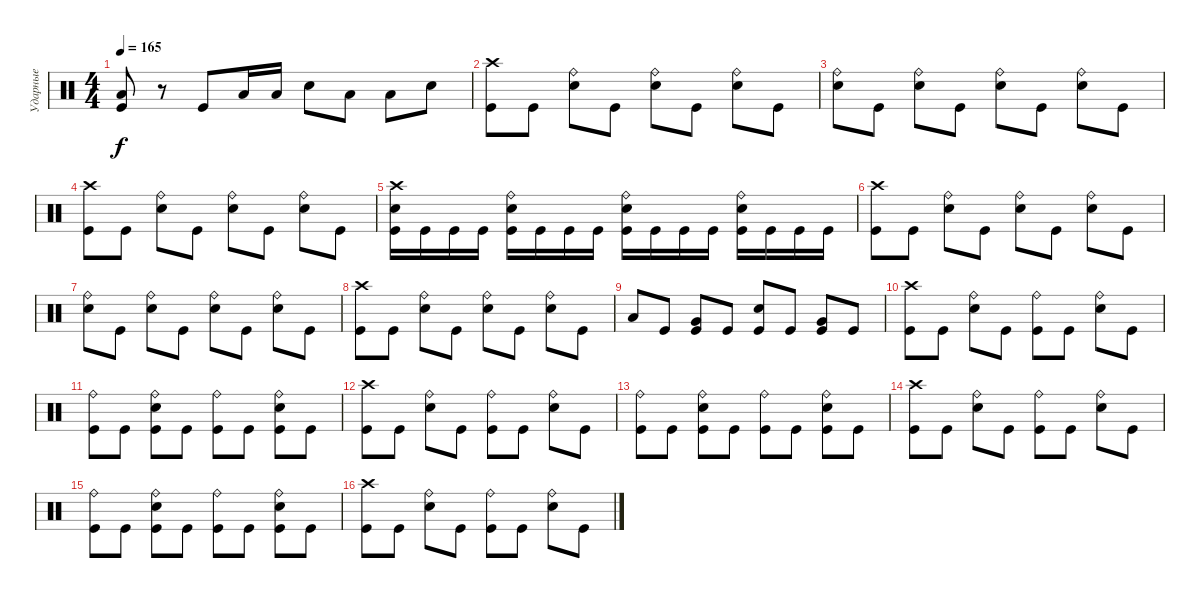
\track ("Ударные" "Ударные") {instrument percussion}
\staff {score}
\articulation defaults
\ts (4 4)
\tempo 165
\clef neutral
\ks c
("Low Tom (hit)" "Kick (hit)").8{dy f} r.8 "Kick (hit)".8 "Low Tom (hit)".16 "Low Tom (hit)".16 "Electric Snare (hit)".8 "Low Tom (hit)".8 "Low Tom (hit)".8 "Electric Snare (hit)".8 |
("Crash high (hit)" "Kick (hit)").8 "Kick (hit)".8 ("Ride (bell)" "Electric Snare (hit)").8 "Kick (hit)".8 ("Ride (bell)" "Electric Snare (hit)").8 "Kick (hit)".8 ("Ride (bell)" "Electric Snare (hit)").8 "Kick (hit)".8 |
("Ride (bell)" "Electric Snare (hit)").8 "Kick (hit)".8 ("Ride (bell)" "Electric Snare (hit)").8 "Kick (hit)".8 ("Ride (bell)" "Electric Snare (hit)").8 "Kick (hit)".8 ("Ride (bell)" "Electric Snare (hit)").8 "Kick (hit)".8 |
("Crash high (hit)" "Kick (hit)").8 "Kick (hit)".8 ("Ride (bell)" "Electric Snare (hit)").8 "Kick (hit)".8 ("Ride (bell)" "Electric Snare (hit)").8 "Kick (hit)".8 ("Ride (bell)" "Electric Snare (hit)").8 "Kick (hit)".8 |
("Crash high (hit)" "Electric Snare (hit)" "Kick (hit)").16 "Kick (hit)".16 "Kick (hit)".16 "Kick (hit)".16 ("Ride (bell)" "Electric Snare (hit)" "Kick (hit)").16 "Kick (hit)".16 "Kick (hit)".16 "Kick (hit)".16 ("Ride (bell)" "Electric Snare (hit)" "Kick (hit)").16 "Kick (hit)".16 "Kick (hit)".16 "Kick (hit)".16 ("Ride (bell)" "Electric Snare (hit)" "Kick (hit)").16 "Kick (hit)".16 "Kick (hit)".16 "Kick (hit)".16 |
("Crash high (hit)" "Kick (hit)").8 "Kick (hit)".8 ("Ride (bell)" "Electric Snare (hit)").8 "Kick (hit)".8 ("Ride (bell)" "Electric Snare (hit)").8 "Kick (hit)".8 ("Ride (bell)" "Electric Snare (hit)").8 "Kick (hit)".8 |
("Ride (bell)" "Electric Snare (hit)").8 "Kick (hit)".8 ("Ride (bell)" "Electric Snare (hit)").8 "Kick (hit)".8 ("Ride (bell)" "Electric Snare (hit)").8 "Kick (hit)".8 ("Ride (bell)" "Electric Snare (hit)").8 "Kick (hit)".8 |
("Crash high (hit)" "Kick (hit)").8 "Kick (hit)".8 ("Ride (bell)" "Electric Snare (hit)").8 "Kick (hit)".8 ("Ride (bell)" "Electric Snare (hit)").8 "Kick (hit)".8 ("Ride (bell)" "Electric Snare (hit)").8 "Kick (hit)".8 |
"Low Tom (hit)".8 "Kick (hit)".8 ("Very Low Tom (hit)" "Kick (hit)").8 "Kick (hit)".8 ("Electric Snare (hit)" "Kick (hit)").8 "Kick (hit)".8 ("Very Low Tom (hit)" "Kick (hit)").8 "Kick (hit)".8 |
("Crash high (hit)" "Kick (hit)").8 "Kick (hit)".8 ("Ride (bell)" "Electric Snare (hit)").8 "Kick (hit)".8 ("Ride (bell)" "Kick (hit)").8 "Kick (hit)".8 ("Ride (bell)" "Electric Snare (hit)").8 "Kick (hit)".8 |
("Ride (bell)" "Kick (hit)").8 "Kick (hit)".8 ("Ride (bell)" "Electric Snare (hit)" "Kick (hit)").8 "Kick (hit)".8 ("Ride (bell)" "Kick (hit)").8 "Kick (hit)".8 ("Ride (bell)" "Electric Snare (hit)" "Kick (hit)").8 "Kick (hit)".8 |
("Crash high (hit)" "Kick (hit)").8 "Kick (hit)".8 ("Ride (bell)" "Electric Snare (hit)").8 "Kick (hit)".8 ("Ride (bell)" "Kick (hit)").8 "Kick (hit)".8 ("Ride (bell)" "Electric Snare (hit)").8 "Kick (hit)".8 |
("Ride (bell)" "Kick (hit)").8 "Kick (hit)".8 ("Ride (bell)" "Electric Snare (hit)" "Kick (hit)").8 "Kick (hit)".8 ("Ride (bell)" "Kick (hit)").8 "Kick (hit)".8 ("Ride (bell)" "Electric Snare (hit)" "Kick (hit)").8 "Kick (hit)".8 |
("Crash high (hit)" "Kick (hit)").8 "Kick (hit)".8 ("Ride (bell)" "Electric Snare (hit)").8 "Kick (hit)".8 ("Ride (bell)" "Kick (hit)").8 "Kick (hit)".8 ("Ride (bell)" "Electric Snare (hit)").8 "Kick (hit)".8 |
("Ride (bell)" "Kick (hit)").8 "Kick (hit)".8 ("Ride (bell)" "Electric Snare (hit)" "Kick (hit)").8 "Kick (hit)".8 ("Ride (bell)" "Kick (hit)").8 "Kick (hit)".8 ("Ride (bell)" "Electric Snare (hit)" "Kick (hit)").8 "Kick (hit)".8 |
("Crash high (hit)" "Kick (hit)").8 "Kick (hit)".8 ("Ride (bell)" "Electric Snare (hit)").8 "Kick (hit)".8 ("Ride (bell)" "Kick (hit)").8 "Kick (hit)".8 ("Ride (bell)" "Electric Snare (hit)").8 "Kick (hit)".8
